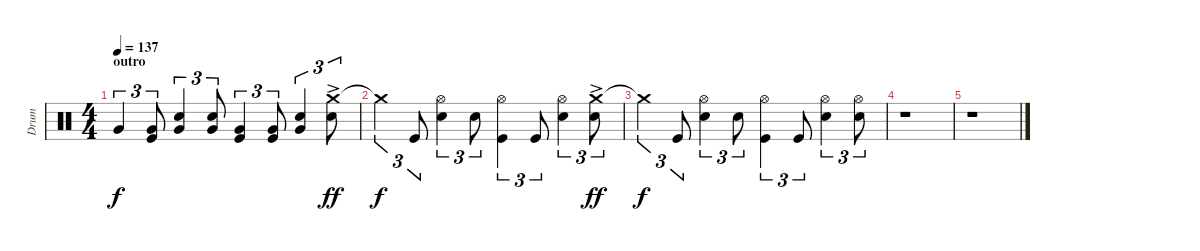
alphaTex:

\track ("Drum" "Drum") {instrument percussion}
\staff {score}
\articulation defaults
\ts (4 4)
\section ("" "outro")
\tempo 137
\clef neutral
\ks c "Very Low Tom (hit)".4{tu (3 2) dy f}
("Very Low Tom (hit)" "Kick (hit)").8{tu (3 2)} ("Snare (hit) 2" "Very Low Tom (hit)").4{tu (3 2)} ("Snare (hit) 2" "Very Low Tom (hit)").8{tu (3 2)} ("Very Low Tom (hit)" "Kick (hit)").4{tu (3 2)} ("Very Low Tom (hit)" "Kick (hit)").8{tu (3 2)} ("Snare (hit) 2" "Very Low Tom (hit)").4{tu (3 2)} ("Crash medium (hit)"{ac} "Snare (hit) 2"{ac}).8{tu (3 2) dy ff} |
"Crash medium (hit)"{t}.4{tu (3 2) dy f} "Kick (hit)".8{tu (3 2)} ("Hi-Hat (open)" "Snare (hit) 2").4{tu (3 2)} "Snare (hit) 2".8{tu (3 2)} ("Hi-Hat (open)" "Kick (hit)").4{tu (3 2)} "Kick (hit)".8{tu (3 2)} ("Hi-Hat (open)" "Snare (hit) 2").4{tu (3 2)} ("Crash medium (hit)"{ac} "Snare (hit) 2"{ac}).8{tu (3 2) dy ff} |
"Crash medium (hit)"{t}.4{tu (3 2) dy f} "Kick (hit)".8{tu (3 2)} ("Hi-Hat (open)" "Snare (hit) 2").4{tu (3 2)} "Snare (hit) 2".8{tu (3 2)} ("Hi-Hat (open)" "Kick (hit)").4{tu (3 2)} "Kick (hit)".8{tu (3 2)} ("Hi-Hat (open)" "Snare (hit) 2").4{tu (3 2)} ("Hi-Hat (open)" "Snare (hit) 2").8{tu (3 2)} |
r.1 |
r.1
